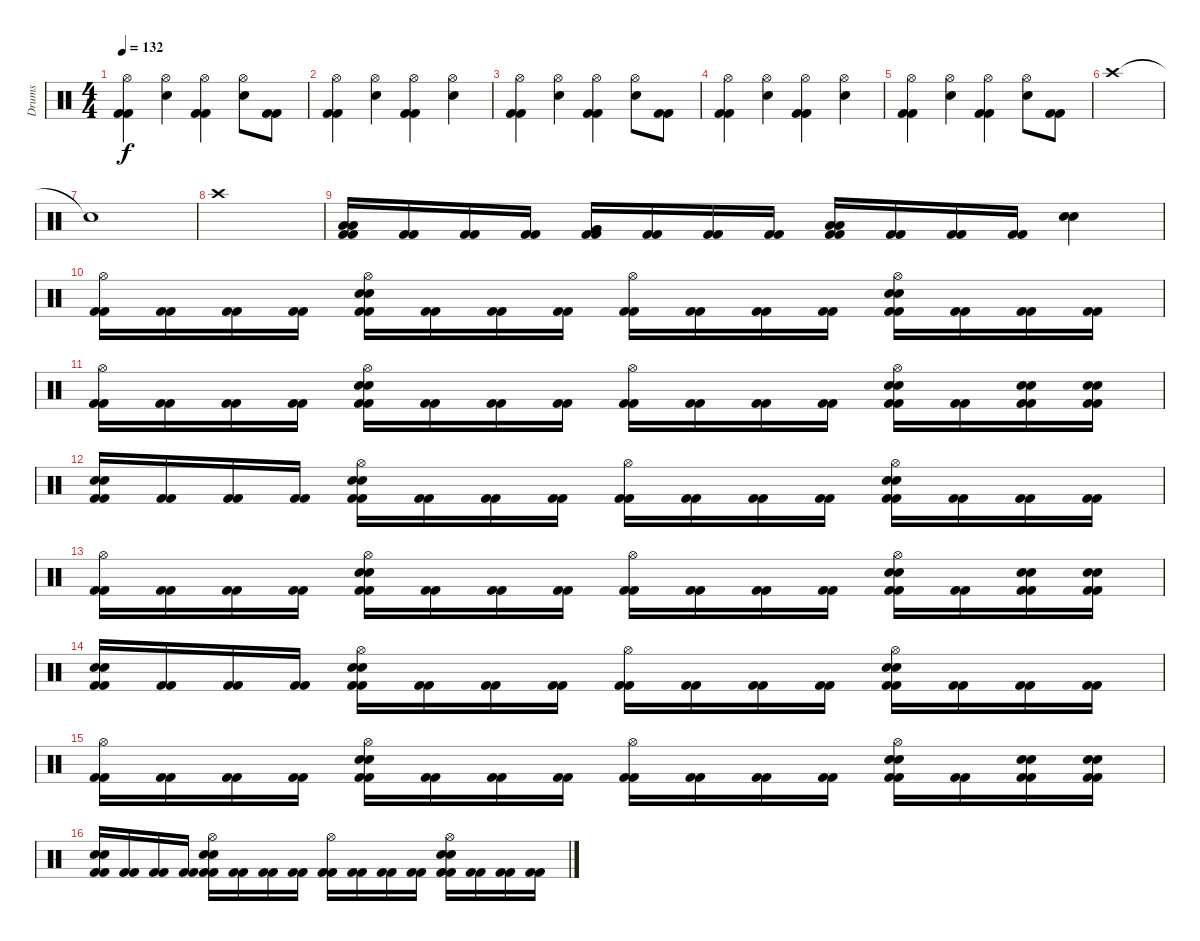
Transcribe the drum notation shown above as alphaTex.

\track ("Drums" "Drums") {instrument percussion}
\staff {score}
\articulation defaults
\ts (4 4)
\tempo 132
\clef neutral
\ks c
("Hi-Hat (open)" "Kick (hit) 2" "Kick (hit) 2").4{dy f} ("Hi-Hat (open)" "Snare (hit) 2").4 ("Hi-Hat (open)" "Kick (hit) 2" "Kick (hit) 2").4 ("Hi-Hat (open)" "Snare (hit) 2").8 ("Kick (hit) 2" "Kick (hit) 2").8 |
("Hi-Hat (open)" "Kick (hit) 2" "Kick (hit) 2").4 ("Hi-Hat (open)" "Snare (hit) 2").4 ("Hi-Hat (open)" "Kick (hit) 2" "Kick (hit) 2").4 ("Hi-Hat (open)" "Snare (hit) 2").4 |
("Hi-Hat (open)" "Kick (hit) 2" "Kick (hit) 2").4 ("Hi-Hat (open)" "Snare (hit) 2").4 ("Hi-Hat (open)" "Kick (hit) 2" "Kick (hit) 2").4 ("Hi-Hat (open)" "Snare (hit) 2").8 ("Kick (hit) 2" "Kick (hit) 2").8 |
("Hi-Hat (open)" "Kick (hit) 2" "Kick (hit) 2").4 ("Hi-Hat (open)" "Snare (hit) 2").4 ("Hi-Hat (open)" "Kick (hit) 2" "Kick (hit) 2").4 ("Hi-Hat (open)" "Snare (hit) 2").4 |
("Hi-Hat (open)" "Kick (hit) 2" "Kick (hit) 2").4 ("Hi-Hat (open)" "Snare (hit) 2").4 ("Hi-Hat (open)" "Kick (hit) 2" "Kick (hit) 2").4 ("Hi-Hat (open)" "Snare (hit) 2").8 ("Kick (hit) 2" "Kick (hit) 2").8 |
"Crash high (hit)".1 |
"Snare (hit)"{t}.1 |
"Crash high (hit)".1 |
("Low Tom (hit)" "Low Tom (hit)" "Kick (hit) 2" "Kick (hit) 2").16 ("Kick (hit) 2" "Kick (hit) 2").16 ("Kick (hit) 2" "Kick (hit) 2").16 ("Kick (hit) 2" "Kick (hit) 2").16 ("Very Low Tom (hit)" "Very Low Tom (hit)" "Kick (hit) 2" "Kick (hit) 2").16 ("Kick (hit) 2" "Kick (hit) 2").16 ("Kick (hit) 2" "Kick (hit) 2").16 ("Kick (hit) 2" "Kick (hit) 2").16 ("Low Floor Tom (hit)" "Low Floor Tom (hit)" "Kick (hit) 2" "Kick (hit) 2").16 ("Kick (hit) 2" "Kick (hit) 2").16 ("Kick (hit) 2" "Kick (hit) 2").16 ("Kick (hit) 2" "Kick (hit) 2").16 ("Snare (hit) 2" "Snare (hit) 2").4 |
("Hi-Hat (open)" "Kick (hit) 2" "Kick (hit) 2").16 ("Kick (hit) 2" "Kick (hit) 2").16 ("Kick (hit) 2" "Kick (hit) 2").16 ("Kick (hit) 2" "Kick (hit) 2").16 ("Hi-Hat (open)" "Snare (hit) 2" "Snare (hit) 2" "Kick (hit) 2" "Kick (hit) 2").16 ("Kick (hit) 2" "Kick (hit) 2").16 ("Kick (hit) 2" "Kick (hit) 2").16 ("Kick (hit) 2" "Kick (hit) 2").16 ("Hi-Hat (open)" "Kick (hit) 2" "Kick (hit) 2").16 ("Kick (hit) 2" "Kick (hit) 2").16 ("Kick (hit) 2" "Kick (hit) 2").16 ("Kick (hit) 2" "Kick (hit) 2").16 ("Hi-Hat (open)" "Snare (hit) 2" "Snare (hit) 2" "Kick (hit) 2" "Kick (hit) 2").16 ("Kick (hit) 2" "Kick (hit) 2").16 ("Kick (hit) 2" "Kick (hit) 2").16 ("Kick (hit) 2" "Kick (hit) 2").16 |
("Hi-Hat (open)" "Kick (hit) 2" "Kick (hit) 2").16 ("Kick (hit) 2" "Kick (hit) 2").16 ("Kick (hit) 2" "Kick (hit) 2").16 ("Kick (hit) 2" "Kick (hit) 2").16 ("Hi-Hat (open)" "Snare (hit) 2" "Snare (hit) 2" "Kick (hit) 2" "Kick (hit) 2").16 ("Kick (hit) 2" "Kick (hit) 2").16 ("Kick (hit) 2" "Kick (hit) 2").16 ("Kick (hit) 2" "Kick (hit) 2").16 ("Hi-Hat (open)" "Kick (hit) 2" "Kick (hit) 2").16 ("Kick (hit) 2" "Kick (hit) 2").16 ("Kick (hit) 2" "Kick (hit) 2").16 ("Kick (hit) 2" "Kick (hit) 2").16 ("Hi-Hat (open)" "Snare (hit) 2" "Snare (hit) 2" "Kick (hit) 2" "Kick (hit) 2").16 ("Kick (hit) 2" "Kick (hit) 2").16 ("Snare (hit) 2" "Snare (hit) 2" "Kick (hit) 2" "Kick (hit) 2").16 ("Snare (hit) 2" "Snare (hit) 2" "Kick (hit) 2" "Kick (hit) 2").16 |
("Snare (hit) 2" "Snare (hit) 2" "Kick (hit) 2" "Kick (hit) 2").16 ("Kick (hit) 2" "Kick (hit) 2").16 ("Kick (hit) 2" "Kick (hit) 2").16 ("Kick (hit) 2" "Kick (hit) 2").16 ("Hi-Hat (open)" "Snare (hit) 2" "Snare (hit) 2" "Kick (hit) 2" "Kick (hit) 2").16 ("Kick (hit) 2" "Kick (hit) 2").16 ("Kick (hit) 2" "Kick (hit) 2").16 ("Kick (hit) 2" "Kick (hit) 2").16 ("Hi-Hat (open)" "Kick (hit) 2" "Kick (hit) 2").16 ("Kick (hit) 2" "Kick (hit) 2").16 ("Kick (hit) 2" "Kick (hit) 2").16 ("Kick (hit) 2" "Kick (hit) 2").16 ("Hi-Hat (open)" "Snare (hit) 2" "Snare (hit) 2" "Kick (hit) 2" "Kick (hit) 2").16 ("Kick (hit) 2" "Kick (hit) 2").16 ("Kick (hit) 2" "Kick (hit) 2").16 ("Kick (hit) 2" "Kick (hit) 2").16 |
("Hi-Hat (open)" "Kick (hit) 2" "Kick (hit) 2").16 ("Kick (hit) 2" "Kick (hit) 2").16 ("Kick (hit) 2" "Kick (hit) 2").16 ("Kick (hit) 2" "Kick (hit) 2").16 ("Hi-Hat (open)" "Snare (hit) 2" "Snare (hit) 2" "Kick (hit) 2" "Kick (hit) 2").16 ("Kick (hit) 2" "Kick (hit) 2").16 ("Kick (hit) 2" "Kick (hit) 2").16 ("Kick (hit) 2" "Kick (hit) 2").16 ("Hi-Hat (open)" "Kick (hit) 2" "Kick (hit) 2").16 ("Kick (hit) 2" "Kick (hit) 2").16 ("Kick (hit) 2" "Kick (hit) 2").16 ("Kick (hit) 2" "Kick (hit) 2").16 ("Hi-Hat (open)" "Snare (hit) 2" "Snare (hit) 2" "Kick (hit) 2" "Kick (hit) 2").16 ("Kick (hit) 2" "Kick (hit) 2").16 ("Snare (hit) 2" "Snare (hit) 2" "Kick (hit) 2" "Kick (hit) 2").16 ("Snare (hit) 2" "Snare (hit) 2" "Kick (hit) 2" "Kick (hit) 2").16 |
("Snare (hit) 2" "Snare (hit) 2" "Kick (hit) 2" "Kick (hit) 2").16 ("Kick (hit) 2" "Kick (hit) 2").16 ("Kick (hit) 2" "Kick (hit) 2").16 ("Kick (hit) 2" "Kick (hit) 2").16 ("Hi-Hat (open)" "Snare (hit) 2" "Snare (hit) 2" "Kick (hit) 2" "Kick (hit) 2").16 ("Kick (hit) 2" "Kick (hit) 2").16 ("Kick (hit) 2" "Kick (hit) 2").16 ("Kick (hit) 2" "Kick (hit) 2").16 ("Hi-Hat (open)" "Kick (hit) 2" "Kick (hit) 2").16 ("Kick (hit) 2" "Kick (hit) 2").16 ("Kick (hit) 2" "Kick (hit) 2").16 ("Kick (hit) 2" "Kick (hit) 2").16 ("Hi-Hat (open)" "Snare (hit) 2" "Snare (hit) 2" "Kick (hit) 2" "Kick (hit) 2").16 ("Kick (hit) 2" "Kick (hit) 2").16 ("Kick (hit) 2" "Kick (hit) 2").16 ("Kick (hit) 2" "Kick (hit) 2").16 |
("Hi-Hat (open)" "Kick (hit) 2" "Kick (hit) 2").16 ("Kick (hit) 2" "Kick (hit) 2").16 ("Kick (hit) 2" "Kick (hit) 2").16 ("Kick (hit) 2" "Kick (hit) 2").16 ("Hi-Hat (open)" "Snare (hit) 2" "Snare (hit) 2" "Kick (hit) 2" "Kick (hit) 2").16 ("Kick (hit) 2" "Kick (hit) 2").16 ("Kick (hit) 2" "Kick (hit) 2").16 ("Kick (hit) 2" "Kick (hit) 2").16 ("Hi-Hat (open)" "Kick (hit) 2" "Kick (hit) 2").16 ("Kick (hit) 2" "Kick (hit) 2").16 ("Kick (hit) 2" "Kick (hit) 2").16 ("Kick (hit) 2" "Kick (hit) 2").16 ("Hi-Hat (open)" "Snare (hit) 2" "Snare (hit) 2" "Kick (hit) 2" "Kick (hit) 2").16 ("Kick (hit) 2" "Kick (hit) 2").16 ("Snare (hit) 2" "Snare (hit) 2" "Kick (hit) 2" "Kick (hit) 2").16 ("Snare (hit) 2" "Snare (hit) 2" "Kick (hit) 2" "Kick (hit) 2").16 |
("Snare (hit) 2" "Snare (hit) 2" "Kick (hit) 2" "Kick (hit) 2").16 ("Kick (hit) 2" "Kick (hit) 2").16 ("Kick (hit) 2" "Kick (hit) 2").16 ("Kick (hit) 2" "Kick (hit) 2").16 ("Hi-Hat (open)" "Snare (hit) 2" "Snare (hit) 2" "Kick (hit) 2" "Kick (hit) 2").16 ("Kick (hit) 2" "Kick (hit) 2").16 ("Kick (hit) 2" "Kick (hit) 2").16 ("Kick (hit) 2" "Kick (hit) 2").16 ("Hi-Hat (open)" "Kick (hit) 2" "Kick (hit) 2").16 ("Kick (hit) 2" "Kick (hit) 2").16 ("Kick (hit) 2" "Kick (hit) 2").16 ("Kick (hit) 2" "Kick (hit) 2").16 ("Hi-Hat (open)" "Snare (hit) 2" "Snare (hit) 2" "Kick (hit) 2" "Kick (hit) 2").16 ("Kick (hit) 2" "Kick (hit) 2").16 ("Kick (hit) 2" "Kick (hit) 2").16 ("Kick (hit) 2" "Kick (hit) 2").16
